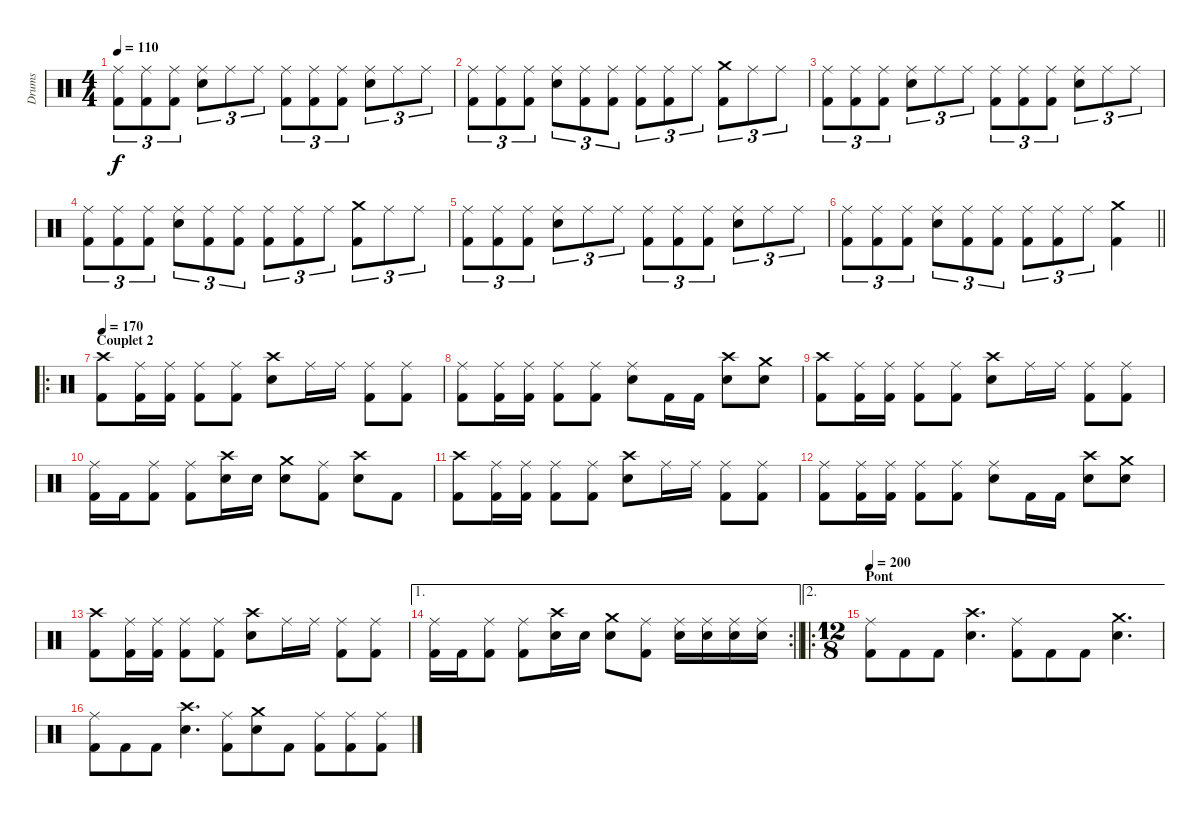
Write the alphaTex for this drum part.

\track ("Drums" "Drums") {instrument percussion}
\staff {score}
\articulation defaults
\ts (4 4)
\tempo 110
\clef neutral
\ks c
("Ride (middle)" "Kick (hit) 2").8{tu (3 2) dy f} ("Ride (middle)" "Kick (hit) 2").8{tu (3 2)} ("Ride (middle)" "Kick (hit) 2").8{tu (3 2)} ("Ride (middle)" "Electric Snare (hit)").8{tu (3 2)} "Ride (middle)".8{tu (3 2)} "Ride (middle)".8{tu (3 2)} ("Ride (middle)" "Kick (hit) 2").8{tu (3 2)} ("Ride (middle)" "Kick (hit) 2").8{tu (3 2)} ("Ride (middle)" "Kick (hit) 2").8{tu (3 2)} ("Ride (middle)" "Electric Snare (hit)").8{tu (3 2)} "Ride (middle)".8{tu (3 2)} "Ride (middle)".8{tu (3 2)} |
("Ride (middle)" "Kick (hit) 2").8{tu (3 2)} ("Ride (middle)" "Kick (hit) 2").8{tu (3 2)} ("Ride (middle)" "Kick (hit) 2").8{tu (3 2)} ("Ride (middle)" "Electric Snare (hit)").8{tu (3 2)} ("Ride (middle)" "Kick (hit) 2").8{tu (3 2)} ("Ride (middle)" "Kick (hit) 2").8{tu (3 2)} ("Ride (middle)" "Kick (hit) 2").8{tu (3 2)} ("Ride (middle)" "Kick (hit) 2").8{tu (3 2)} "Ride (middle)".8{tu (3 2)} ("Crash medium (hit)" "Kick (hit) 2").8{tu (3 2)} "Ride (middle)".8{tu (3 2)} "Ride (middle)".8{tu (3 2)} |
("Ride (middle)" "Kick (hit) 2").8{tu (3 2)} ("Ride (middle)" "Kick (hit) 2").8{tu (3 2)} ("Ride (middle)" "Kick (hit) 2").8{tu (3 2)} ("Ride (middle)" "Electric Snare (hit)").8{tu (3 2)} "Ride (middle)".8{tu (3 2)} "Ride (middle)".8{tu (3 2)} ("Ride (middle)" "Kick (hit) 2").8{tu (3 2)} ("Ride (middle)" "Kick (hit) 2").8{tu (3 2)} ("Ride (middle)" "Kick (hit) 2").8{tu (3 2)} ("Ride (middle)" "Electric Snare (hit)").8{tu (3 2)} "Ride (middle)".8{tu (3 2)} "Ride (middle)".8{tu (3 2)} |
("Ride (middle)" "Kick (hit) 2").8{tu (3 2)} ("Ride (middle)" "Kick (hit) 2").8{tu (3 2)} ("Ride (middle)" "Kick (hit) 2").8{tu (3 2)} ("Ride (middle)" "Electric Snare (hit)").8{tu (3 2)} ("Ride (middle)" "Kick (hit) 2").8{tu (3 2)} ("Ride (middle)" "Kick (hit) 2").8{tu (3 2)} ("Ride (middle)" "Kick (hit) 2").8{tu (3 2)} ("Ride (middle)" "Kick (hit) 2").8{tu (3 2)} "Ride (middle)".8{tu (3 2)} ("Crash medium (hit)" "Kick (hit) 2").8{tu (3 2)} "Ride (middle)".8{tu (3 2)} "Ride (middle)".8{tu (3 2)} |
("Ride (middle)" "Kick (hit) 2").8{tu (3 2)} ("Ride (middle)" "Kick (hit) 2").8{tu (3 2)} ("Ride (middle)" "Kick (hit) 2").8{tu (3 2)} ("Ride (middle)" "Electric Snare (hit)").8{tu (3 2)} "Ride (middle)".8{tu (3 2)} "Ride (middle)".8{tu (3 2)} ("Ride (middle)" "Kick (hit) 2").8{tu (3 2)} ("Ride (middle)" "Kick (hit) 2").8{tu (3 2)} ("Ride (middle)" "Kick (hit) 2").8{tu (3 2)} ("Ride (middle)" "Electric Snare (hit)").8{tu (3 2)} "Ride (middle)".8{tu (3 2)} "Ride (middle)".8{tu (3 2)} |
\barLineRight lightlight
("Ride (middle)" "Kick (hit) 2").8{tu (3 2)} ("Ride (middle)" "Kick (hit) 2").8{tu (3 2)} ("Ride (middle)" "Kick (hit) 2").8{tu (3 2)} ("Ride (middle)" "Electric Snare (hit)").8{tu (3 2)} ("Ride (middle)" "Kick (hit) 2").8{tu (3 2)} ("Ride (middle)" "Kick (hit) 2").8{tu (3 2)} ("Ride (middle)" "Kick (hit) 2").8{tu (3 2)} ("Ride (middle)" "Kick (hit) 2").8{tu (3 2)} "Ride (middle)".8{tu (3 2)} ("Crash medium (hit)" "Kick (hit) 2").4 |
\ro
\section ("" "Couplet 2")
\tempo 170
("Crash high (hit)" "Kick (hit) 2").8 ("Ride (middle)" "Kick (hit) 2").16 ("Ride (middle)" "Kick (hit) 2").16 ("Ride (middle)" "Kick (hit) 2").8 ("Ride (middle)" "Kick (hit) 2").8 ("Crash high (hit)" "Electric Snare (hit)").8 "Ride (middle)".16 "Ride (middle)".16 ("Ride (middle)" "Kick (hit) 2").8 ("Ride (middle)" "Kick (hit) 2").8 |
("Ride (middle)" "Kick (hit) 2").8 ("Ride (middle)" "Kick (hit) 2").16 ("Ride (middle)" "Kick (hit) 2").16 ("Ride (middle)" "Kick (hit) 2").8 ("Ride (middle)" "Kick (hit) 2").8 ("Ride (middle)" "Electric Snare (hit)").8 "Kick (hit) 2".16 "Kick (hit) 2".16 ("Crash high (hit)" "Electric Snare (hit)").8 ("Crash medium (hit)" "Electric Snare (hit)").8 |
("Crash high (hit)" "Kick (hit) 2").8 ("Ride (middle)" "Kick (hit) 2").16 ("Ride (middle)" "Kick (hit) 2").16 ("Ride (middle)" "Kick (hit) 2").8 ("Ride (middle)" "Kick (hit) 2").8 ("Crash high (hit)" "Electric Snare (hit)").8 "Ride (middle)".16 "Ride (middle)".16 ("Ride (middle)" "Kick (hit) 2").8 ("Ride (middle)" "Kick (hit) 2").8 |
("Ride (middle)" "Kick (hit) 2").16 "Kick (hit) 2".16 ("Ride (middle)" "Kick (hit) 2").8 ("Ride (middle)" "Kick (hit) 2").8 ("Crash high (hit)" "Electric Snare (hit)").16 "Electric Snare (hit)".16 ("Crash medium (hit)" "Electric Snare (hit)").8 ("Ride (middle)" "Kick (hit) 2").8 ("Crash high (hit)" "Electric Snare (hit)").8 "Kick (hit) 2".8 |
("Crash high (hit)" "Kick (hit) 2").8 ("Ride (middle)" "Kick (hit) 2").16 ("Ride (middle)" "Kick (hit) 2").16 ("Ride (middle)" "Kick (hit) 2").8 ("Ride (middle)" "Kick (hit) 2").8 ("Crash high (hit)" "Electric Snare (hit)").8 "Ride (middle)".16 "Ride (middle)".16 ("Ride (middle)" "Kick (hit) 2").8 ("Ride (middle)" "Kick (hit) 2").8 |
("Ride (middle)" "Kick (hit) 2").8 ("Ride (middle)" "Kick (hit) 2").16 ("Ride (middle)" "Kick (hit) 2").16 ("Ride (middle)" "Kick (hit) 2").8 ("Ride (middle)" "Kick (hit) 2").8 ("Ride (middle)" "Electric Snare (hit)").8 "Kick (hit) 2".16 "Kick (hit) 2".16 ("Crash high (hit)" "Electric Snare (hit)").8 ("Crash medium (hit)" "Electric Snare (hit)").8 |
("Crash high (hit)" "Kick (hit) 2").8 ("Ride (middle)" "Kick (hit) 2").16 ("Ride (middle)" "Kick (hit) 2").16 ("Ride (middle)" "Kick (hit) 2").8 ("Ride (middle)" "Kick (hit) 2").8 ("Crash high (hit)" "Electric Snare (hit)").8 "Ride (middle)".16 "Ride (middle)".16 ("Ride (middle)" "Kick (hit) 2").8 ("Ride (middle)" "Kick (hit) 2").8 |
\ae 1
\rc 2
\barLineRight lightlight
("Ride (middle)" "Kick (hit) 2").16 "Kick (hit) 2".16 ("Ride (middle)" "Kick (hit) 2").8 ("Ride (middle)" "Kick (hit) 2").8 ("Crash high (hit)" "Electric Snare (hit)").16 "Electric Snare (hit)".16 ("Crash medium (hit)" "Electric Snare (hit)").8 ("Ride (middle)" "Kick (hit) 2").8 ("Ride (middle)" "Electric Snare (hit)").16 ("Ride (middle)" "Electric Snare (hit)").16 ("Ride (middle)" "Electric Snare (hit)").16 ("Ride (middle)" "Electric Snare (hit)").16 |
\ae 2
\ro
\ts (12 8)
\section ("" "Pont")
\tempo 200
("Ride (middle)" "Kick (hit) 2").8 "Kick (hit) 2".8 "Kick (hit) 2".8 ("Crash high (hit)" "Electric Snare (hit)").4{d} ("Ride (middle)" "Kick (hit) 2").8 "Kick (hit) 2".8 "Kick (hit) 2".8 ("Crash medium (hit)" "Electric Snare (hit)").4{d} |
("Ride (middle)" "Kick (hit) 2").8 "Kick (hit) 2".8 "Kick (hit) 2".8 ("Crash high (hit)" "Electric Snare (hit)").4{d} ("Ride (middle)" "Kick (hit) 2").8 ("Crash medium (hit)" "Electric Snare (hit)").8 "Kick (hit) 2".8 ("Ride (middle)" "Kick (hit) 2").8 ("Ride (middle)" "Kick (hit) 2").8 ("Ride (middle)" "Kick (hit) 2").8
